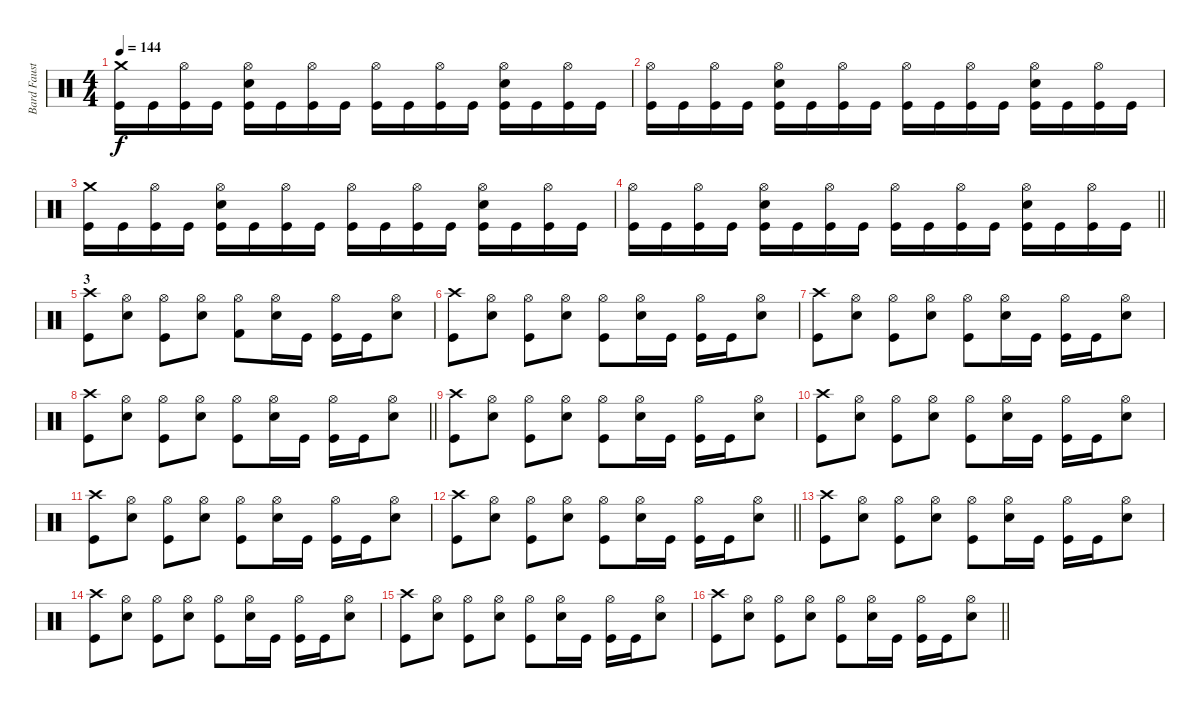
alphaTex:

\track ("Bard Faust" "Bard Faust") {instrument percussion}
\staff {score}
\articulation defaults
\ts (4 4)
\tempo 144
\clef neutral
\ks c
("Crash medium (hit)" "Kick (hit)").16{dy f} "Kick (hit)".16 ("Hi-Hat (open)" "Kick (hit)").16 "Kick (hit)".16 ("Hi-Hat (open)" "Snare (hit) 2" "Kick (hit)").16 "Kick (hit)".16 ("Hi-Hat (open)" "Kick (hit)").16 "Kick (hit)".16 ("Hi-Hat (open)" "Kick (hit)").16 "Kick (hit)".16 ("Hi-Hat (open)" "Kick (hit)").16 "Kick (hit)".16 ("Hi-Hat (open)" "Snare (hit) 2" "Kick (hit)").16 "Kick (hit)".16 ("Hi-Hat (open)" "Kick (hit)").16 "Kick (hit)".16 |
("Hi-Hat (open)" "Kick (hit)").16 "Kick (hit)".16 ("Hi-Hat (open)" "Kick (hit)").16 "Kick (hit)".16 ("Hi-Hat (open)" "Snare (hit) 2" "Kick (hit)").16 "Kick (hit)".16 ("Hi-Hat (open)" "Kick (hit)").16 "Kick (hit)".16 ("Hi-Hat (open)" "Kick (hit)").16 "Kick (hit)".16 ("Hi-Hat (open)" "Kick (hit)").16 "Kick (hit)".16 ("Hi-Hat (open)" "Snare (hit) 2" "Kick (hit)").16 "Kick (hit)".16 ("Hi-Hat (open)" "Kick (hit)").16 "Kick (hit)".16 |
("Crash medium (hit)" "Kick (hit)").16 "Kick (hit)".16 ("Hi-Hat (open)" "Kick (hit)").16 "Kick (hit)".16 ("Hi-Hat (open)" "Snare (hit) 2" "Kick (hit)").16 "Kick (hit)".16 ("Hi-Hat (open)" "Kick (hit)").16 "Kick (hit)".16 ("Hi-Hat (open)" "Kick (hit)").16 "Kick (hit)".16 ("Hi-Hat (open)" "Kick (hit)").16 "Kick (hit)".16 ("Hi-Hat (open)" "Snare (hit) 2" "Kick (hit)").16 "Kick (hit)".16 ("Hi-Hat (open)" "Kick (hit)").16 "Kick (hit)".16 |
\barLineRight lightlight
("Hi-Hat (open)" "Kick (hit)").16 "Kick (hit)".16 ("Hi-Hat (open)" "Kick (hit)").16 "Kick (hit)".16 ("Hi-Hat (open)" "Snare (hit) 2" "Kick (hit)").16 "Kick (hit)".16 ("Hi-Hat (open)" "Kick (hit)").16 "Kick (hit)".16 ("Hi-Hat (open)" "Kick (hit)").16 "Kick (hit)".16 ("Hi-Hat (open)" "Kick (hit)").16 "Kick (hit)".16 ("Hi-Hat (open)" "Snare (hit) 2" "Kick (hit)").16 "Kick (hit)".16 ("Hi-Hat (open)" "Kick (hit)").16 "Kick (hit)".16 |
\section ("" "3")
("Crash high (hit)" "Kick (hit)").8 ("Hi-Hat (open)" "Snare (hit) 2").8 ("Hi-Hat (open)" "Kick (hit)").8 ("Hi-Hat (open)" "Snare (hit) 2").8 ("Hi-Hat (open)" "Kick (hit) 2").8 ("Hi-Hat (open)" "Snare (hit) 2").16 "Kick (hit)".16 ("Hi-Hat (open)" "Kick (hit)").16 "Kick (hit)".16 ("Hi-Hat (open)" "Snare (hit) 2").8 |
("Crash high (hit)" "Kick (hit)").8 ("Hi-Hat (open)" "Snare (hit) 2").8 ("Hi-Hat (open)" "Kick (hit)").8 ("Hi-Hat (open)" "Snare (hit) 2").8 ("Hi-Hat (open)" "Kick (hit)").8 ("Hi-Hat (open)" "Snare (hit) 2").16 "Kick (hit)".16 ("Hi-Hat (open)" "Kick (hit)").16 "Kick (hit)".16 ("Hi-Hat (open)" "Snare (hit) 2").8 |
("Crash high (hit)" "Kick (hit)").8 ("Hi-Hat (open)" "Snare (hit) 2").8 ("Hi-Hat (open)" "Kick (hit)").8 ("Hi-Hat (open)" "Snare (hit) 2").8 ("Hi-Hat (open)" "Kick (hit)").8 ("Hi-Hat (open)" "Snare (hit) 2").16 "Kick (hit)".16 ("Hi-Hat (open)" "Kick (hit)").16 "Kick (hit)".16 ("Hi-Hat (open)" "Snare (hit) 2").8 |
\barLineRight lightlight
("Crash high (hit)" "Kick (hit)").8 ("Hi-Hat (open)" "Snare (hit) 2").8 ("Hi-Hat (open)" "Kick (hit)").8 ("Hi-Hat (open)" "Snare (hit) 2").8 ("Hi-Hat (open)" "Kick (hit)").8 ("Hi-Hat (open)" "Snare (hit) 2").16 "Kick (hit)".16 ("Hi-Hat (open)" "Kick (hit)").16 "Kick (hit)".16 ("Hi-Hat (open)" "Snare (hit) 2").8 |
\section ("" "")
("Crash high (hit)" "Kick (hit)").8 ("Hi-Hat (open)" "Snare (hit) 2").8 ("Hi-Hat (open)" "Kick (hit)").8 ("Hi-Hat (open)" "Snare (hit) 2").8 ("Hi-Hat (open)" "Kick (hit)").8 ("Hi-Hat (open)" "Snare (hit) 2").16 "Kick (hit)".16 ("Hi-Hat (open)" "Kick (hit)").16 "Kick (hit)".16 ("Hi-Hat (open)" "Snare (hit) 2").8 |
("Crash high (hit)" "Kick (hit)").8 ("Hi-Hat (open)" "Snare (hit) 2").8 ("Hi-Hat (open)" "Kick (hit)").8 ("Hi-Hat (open)" "Snare (hit) 2").8 ("Hi-Hat (open)" "Kick (hit)").8 ("Hi-Hat (open)" "Snare (hit) 2").16 "Kick (hit)".16 ("Hi-Hat (open)" "Kick (hit)").16 "Kick (hit)".16 ("Hi-Hat (open)" "Snare (hit) 2").8 |
("Crash high (hit)" "Kick (hit)").8 ("Hi-Hat (open)" "Snare (hit) 2").8 ("Hi-Hat (open)" "Kick (hit)").8 ("Hi-Hat (open)" "Snare (hit) 2").8 ("Hi-Hat (open)" "Kick (hit)").8 ("Hi-Hat (open)" "Snare (hit) 2").16 "Kick (hit)".16 ("Hi-Hat (open)" "Kick (hit)").16 "Kick (hit)".16 ("Hi-Hat (open)" "Snare (hit) 2").8 |
\barLineRight lightlight
("Crash high (hit)" "Kick (hit)").8 ("Hi-Hat (open)" "Snare (hit) 2").8 ("Hi-Hat (open)" "Kick (hit)").8 ("Hi-Hat (open)" "Snare (hit) 2").8 ("Hi-Hat (open)" "Kick (hit)").8 ("Hi-Hat (open)" "Snare (hit) 2").16 "Kick (hit)".16 ("Hi-Hat (open)" "Kick (hit)").16 "Kick (hit)".16 ("Hi-Hat (open)" "Snare (hit) 2").8 |
\section ("" "")
("Crash high (hit)" "Kick (hit)").8 ("Hi-Hat (open)" "Snare (hit) 2").8 ("Hi-Hat (open)" "Kick (hit)").8 ("Hi-Hat (open)" "Snare (hit) 2").8 ("Hi-Hat (open)" "Kick (hit)").8 ("Hi-Hat (open)" "Snare (hit) 2").16 "Kick (hit)".16 ("Hi-Hat (open)" "Kick (hit)").16 "Kick (hit)".16 ("Hi-Hat (open)" "Snare (hit) 2").8 |
("Crash high (hit)" "Kick (hit)").8 ("Hi-Hat (open)" "Snare (hit) 2").8 ("Hi-Hat (open)" "Kick (hit)").8 ("Hi-Hat (open)" "Snare (hit) 2").8 ("Hi-Hat (open)" "Kick (hit)").8 ("Hi-Hat (open)" "Snare (hit) 2").16 "Kick (hit)".16 ("Hi-Hat (open)" "Kick (hit)").16 "Kick (hit)".16 ("Hi-Hat (open)" "Snare (hit) 2").8 |
("Crash high (hit)" "Kick (hit)").8 ("Hi-Hat (open)" "Snare (hit) 2").8 ("Hi-Hat (open)" "Kick (hit)").8 ("Hi-Hat (open)" "Snare (hit) 2").8 ("Hi-Hat (open)" "Kick (hit)").8 ("Hi-Hat (open)" "Snare (hit) 2").16 "Kick (hit)".16 ("Hi-Hat (open)" "Kick (hit)").16 "Kick (hit)".16 ("Hi-Hat (open)" "Snare (hit) 2").8 |
\barLineRight lightlight
("Crash high (hit)" "Kick (hit)").8 ("Hi-Hat (open)" "Snare (hit) 2").8 ("Hi-Hat (open)" "Kick (hit)").8 ("Hi-Hat (open)" "Snare (hit) 2").8 ("Hi-Hat (open)" "Kick (hit)").8 ("Hi-Hat (open)" "Snare (hit) 2").16 "Kick (hit)".16 ("Hi-Hat (open)" "Kick (hit)").16 "Kick (hit)".16 ("Hi-Hat (open)" "Snare (hit) 2").8
